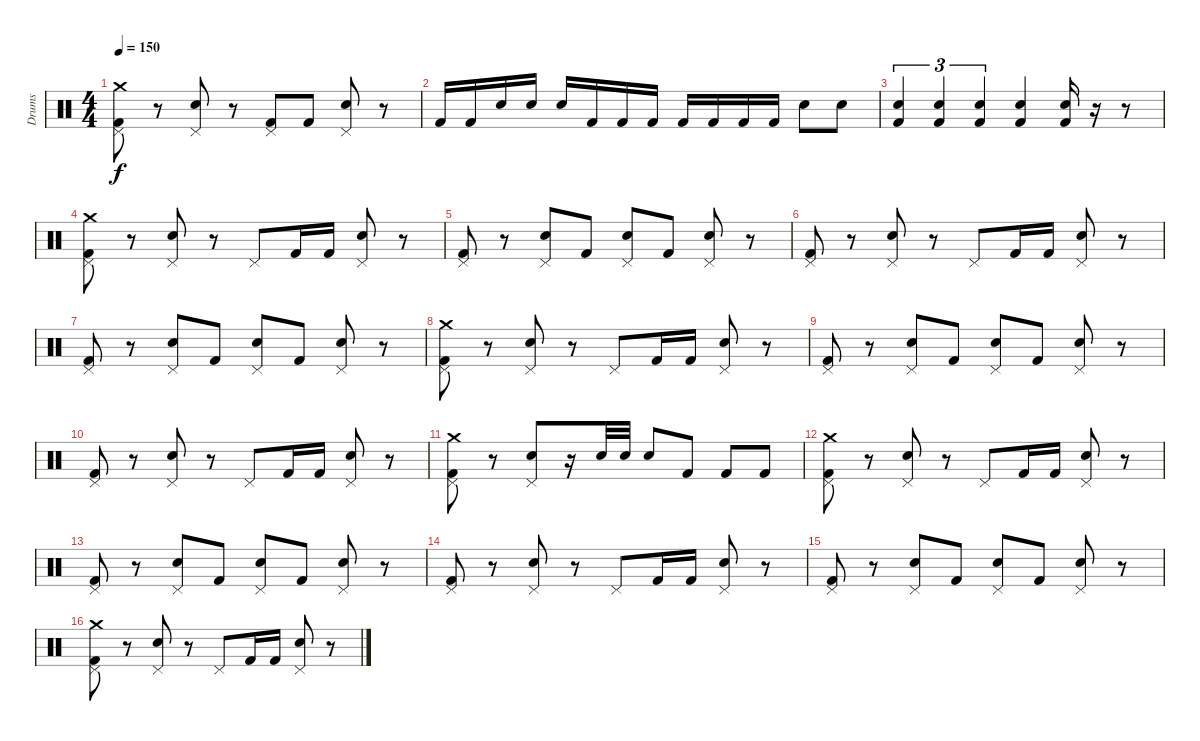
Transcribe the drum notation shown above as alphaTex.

\track ("Drums" "Drums") {instrument percussion}
\staff {score}
\articulation defaults
\ts (4 4)
\tempo 150
\clef neutral
\ks c
("Kick (hit) 2" "Pedal Hi-Hat (hit)" "Crash medium (hit)").8{dy f} r.8 ("Pedal Hi-Hat (hit)" "Electric Snare (hit)").8 r.8 ("Kick (hit) 2" "Pedal Hi-Hat (hit)").8 "Kick (hit) 2".8 ("Pedal Hi-Hat (hit)" "Electric Snare (hit)").8 r.8 |
"Kick (hit) 2".16 "Kick (hit) 2".16 "Electric Snare (hit)".16 "Electric Snare (hit)".16 "Electric Snare (hit)".16 "Kick (hit) 2".16 "Kick (hit) 2".16 "Kick (hit) 2".16 "Kick (hit) 2".16 "Kick (hit) 2".16 "Kick (hit) 2".16 "Kick (hit) 2".16 "Electric Snare (hit)".8 "Electric Snare (hit)".8 |
("Kick (hit) 2" "Electric Snare (hit)").4{tu (3 2)} ("Kick (hit) 2" "Electric Snare (hit)").4{tu (3 2)} ("Kick (hit) 2" "Electric Snare (hit)").4{tu (3 2)} ("Kick (hit) 2" "Electric Snare (hit)").4 ("Kick (hit) 2" "Electric Snare (hit)").16 r.16 r.8 |
("Kick (hit) 2" "Pedal Hi-Hat (hit)" "Crash medium (hit)").8 r.8 ("Pedal Hi-Hat (hit)" "Electric Snare (hit)").8 r.8 "Pedal Hi-Hat (hit)".8 "Kick (hit) 2".16 "Kick (hit) 2".16 ("Pedal Hi-Hat (hit)" "Electric Snare (hit)").8 r.8 |
("Kick (hit) 2" "Pedal Hi-Hat (hit)").8 r.8 ("Pedal Hi-Hat (hit)" "Electric Snare (hit)").8 "Kick (hit) 2".8 ("Pedal Hi-Hat (hit)" "Electric Snare (hit)").8 "Kick (hit) 2".8 ("Pedal Hi-Hat (hit)" "Electric Snare (hit)").8 r.8 |
("Kick (hit) 2" "Pedal Hi-Hat (hit)").8 r.8 ("Pedal Hi-Hat (hit)" "Electric Snare (hit)").8 r.8 "Pedal Hi-Hat (hit)".8 "Kick (hit) 2".16 "Kick (hit) 2".16 ("Pedal Hi-Hat (hit)" "Electric Snare (hit)").8 r.8 |
("Kick (hit) 2" "Pedal Hi-Hat (hit)").8 r.8 ("Pedal Hi-Hat (hit)" "Electric Snare (hit)").8 "Kick (hit) 2".8 ("Pedal Hi-Hat (hit)" "Electric Snare (hit)").8 "Kick (hit) 2".8 ("Pedal Hi-Hat (hit)" "Electric Snare (hit)").8 r.8 |
("Kick (hit) 2" "Pedal Hi-Hat (hit)" "Crash medium (hit)").8 r.8 ("Pedal Hi-Hat (hit)" "Electric Snare (hit)").8 r.8 "Pedal Hi-Hat (hit)".8 "Kick (hit) 2".16 "Kick (hit) 2".16 ("Pedal Hi-Hat (hit)" "Electric Snare (hit)").8 r.8 |
("Kick (hit) 2" "Pedal Hi-Hat (hit)").8 r.8 ("Pedal Hi-Hat (hit)" "Electric Snare (hit)").8 "Kick (hit) 2".8 ("Pedal Hi-Hat (hit)" "Electric Snare (hit)").8 "Kick (hit) 2".8 ("Pedal Hi-Hat (hit)" "Electric Snare (hit)").8 r.8 |
("Kick (hit) 2" "Pedal Hi-Hat (hit)").8 r.8 ("Pedal Hi-Hat (hit)" "Electric Snare (hit)").8 r.8 "Pedal Hi-Hat (hit)".8 "Kick (hit) 2".16 "Kick (hit) 2".16 ("Pedal Hi-Hat (hit)" "Electric Snare (hit)").8 r.8 |
("Kick (hit) 2" "Pedal Hi-Hat (hit)" "Crash medium (hit)").8 r.8 ("Pedal Hi-Hat (hit)" "Electric Snare (hit)").8 r.16 "Electric Snare (hit)".32 "Electric Snare (hit)".32 "Electric Snare (hit)".8 "Kick (hit) 2".8 "Kick (hit) 2".8 "Kick (hit) 2".8 |
("Kick (hit) 2" "Pedal Hi-Hat (hit)" "Crash medium (hit)").8 r.8 ("Pedal Hi-Hat (hit)" "Electric Snare (hit)").8 r.8 "Pedal Hi-Hat (hit)".8 "Kick (hit) 2".16 "Kick (hit) 2".16 ("Pedal Hi-Hat (hit)" "Electric Snare (hit)").8 r.8 |
("Kick (hit) 2" "Pedal Hi-Hat (hit)").8 r.8 ("Pedal Hi-Hat (hit)" "Electric Snare (hit)").8 "Kick (hit) 2".8 ("Pedal Hi-Hat (hit)" "Electric Snare (hit)").8 "Kick (hit) 2".8 ("Pedal Hi-Hat (hit)" "Electric Snare (hit)").8 r.8 |
("Kick (hit) 2" "Pedal Hi-Hat (hit)").8 r.8 ("Pedal Hi-Hat (hit)" "Electric Snare (hit)").8 r.8 "Pedal Hi-Hat (hit)".8 "Kick (hit) 2".16 "Kick (hit) 2".16 ("Pedal Hi-Hat (hit)" "Electric Snare (hit)").8 r.8 |
("Kick (hit) 2" "Pedal Hi-Hat (hit)").8 r.8 ("Pedal Hi-Hat (hit)" "Electric Snare (hit)").8 "Kick (hit) 2".8 ("Pedal Hi-Hat (hit)" "Electric Snare (hit)").8 "Kick (hit) 2".8 ("Pedal Hi-Hat (hit)" "Electric Snare (hit)").8 r.8 |
("Kick (hit) 2" "Pedal Hi-Hat (hit)" "Crash medium (hit)").8 r.8 ("Pedal Hi-Hat (hit)" "Electric Snare (hit)").8 r.8 "Pedal Hi-Hat (hit)".8 "Kick (hit) 2".16 "Kick (hit) 2".16 ("Pedal Hi-Hat (hit)" "Electric Snare (hit)").8 r.8
